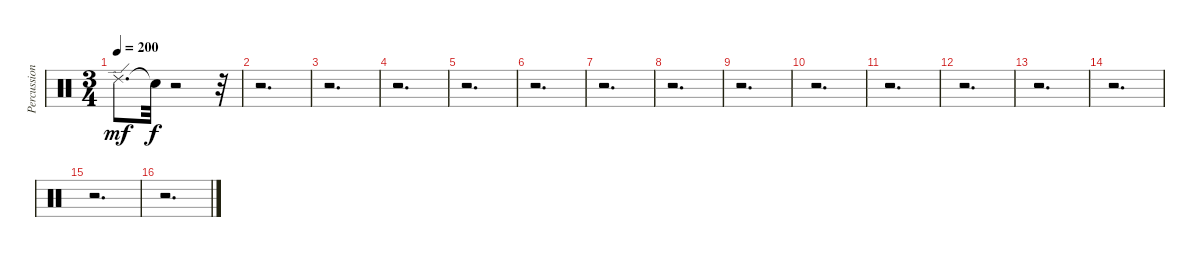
\track ("Percussion." "Percussion") {instrument percussion}
\staff {score}
\articulation defaults
\ts (3 4)
\tempo 200
\clef neutral
\ks c "Ride (edge) 2".8{d dy mf} "Snare (hit)"{t}.32{dy f}
r.2 r.32 |
r.2{d} |
r.2{d} |
r.2{d} |
r.2{d} |
r.2{d} |
r.2{d} |
r.2{d} |
r.2{d} |
r.2{d} |
r.2{d} |
r.2{d} |
r.2{d} |
r.2{d} |
r.2{d} |
r.2{d}
